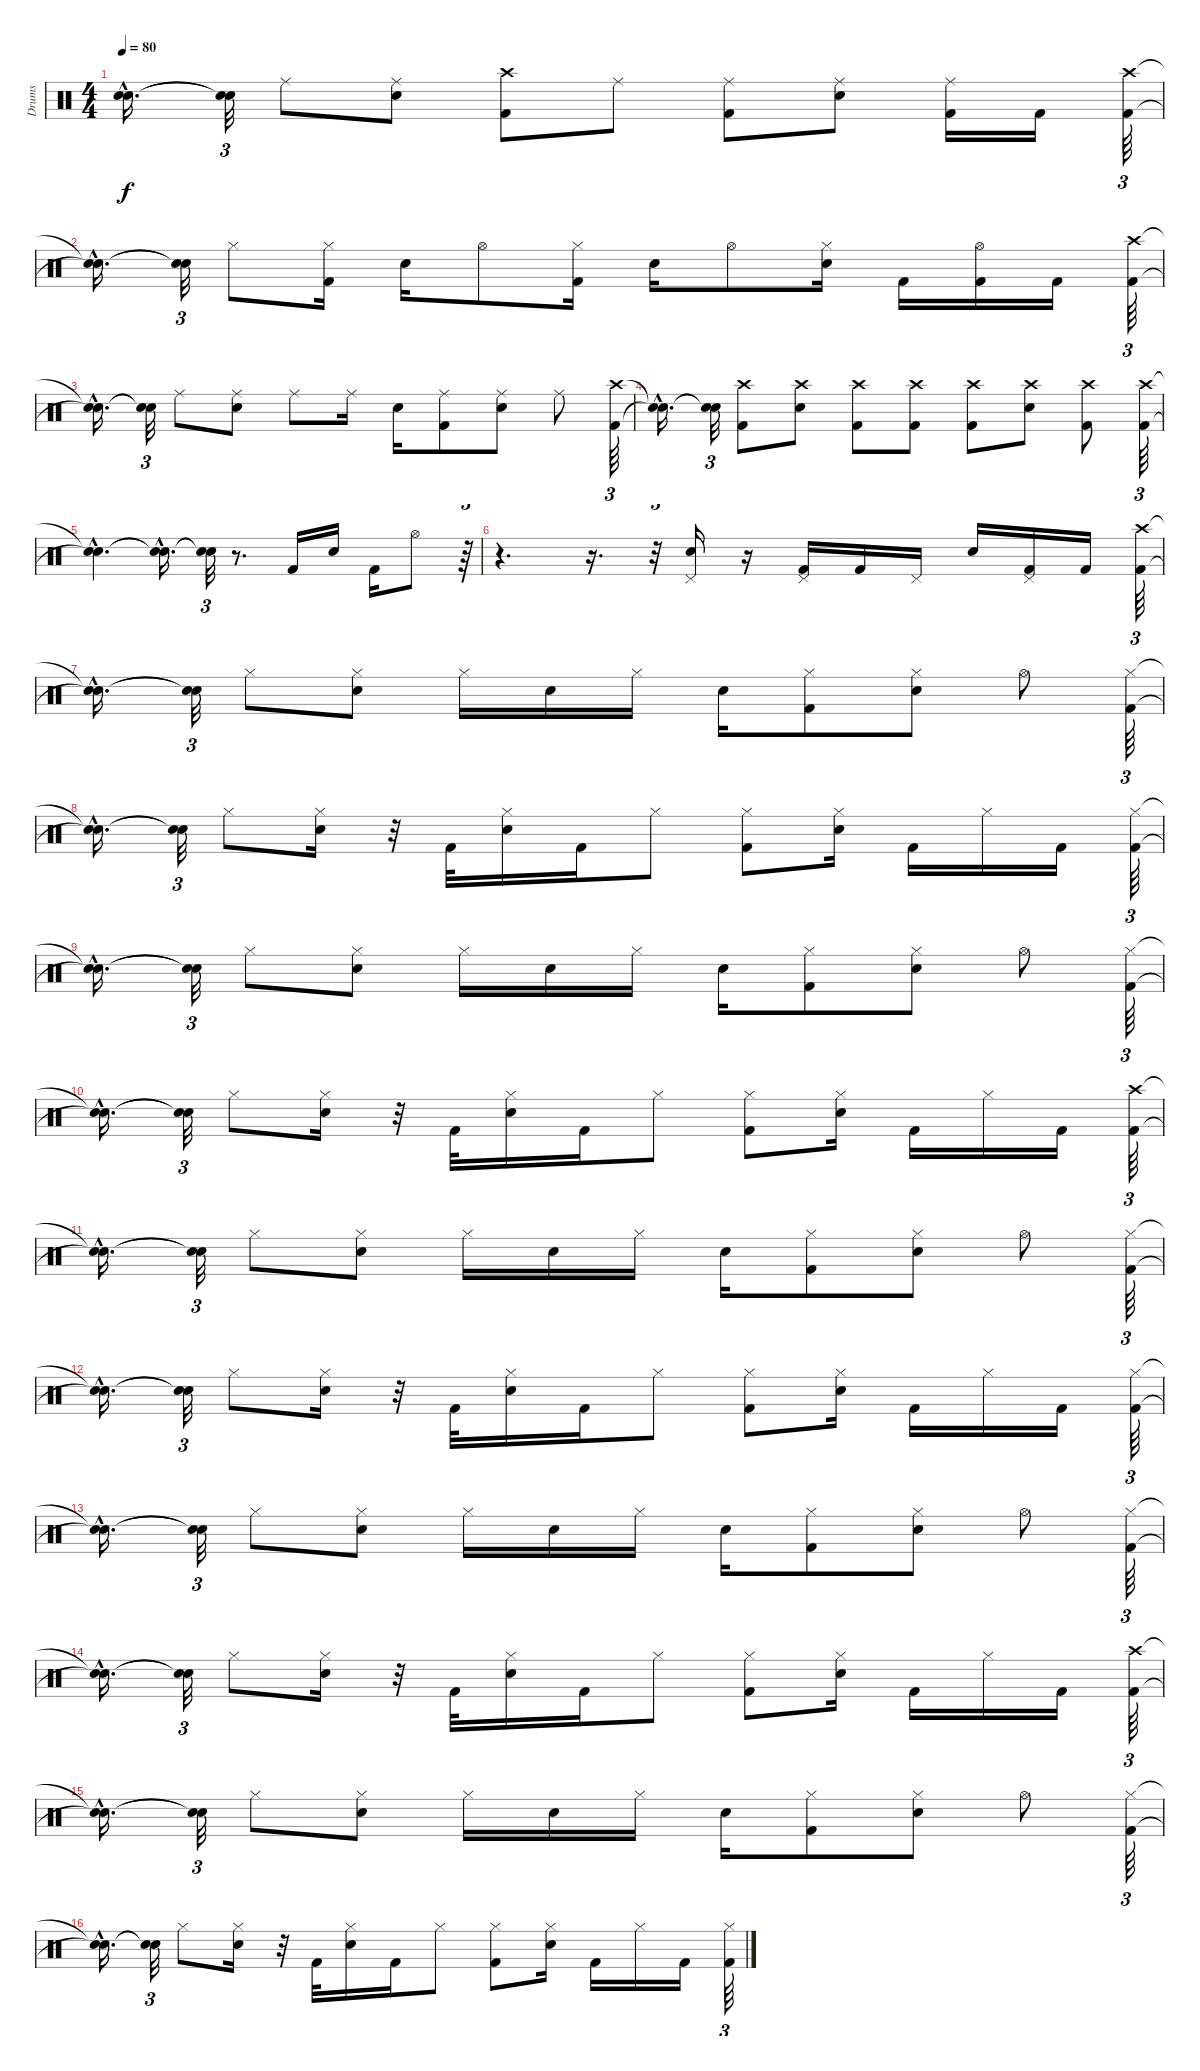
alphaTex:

\track ("Drums" "Drums") {instrument percussion}
\staff {score}
\articulation defaults
\ts (4 4)
\tempo 80
\clef neutral
\ks c
("Snare (hit)"{hac t} "Snare (hit)"{hac t}).16{d dy f} ("Snare (hit)"{t} "Snare (hit)"{t}).32{tu (3 2)} "Ride (middle)".8 ("Ride (middle)" "Electric Snare (hit)").8 ("Crash high (hit)" "Kick (hit) 2").8 "Ride (middle)".8 ("Ride (middle)" "Kick (hit) 2").8 ("Ride (middle)" "Electric Snare (hit)").8 ("Ride (middle)" "Kick (hit) 2").16 "Kick (hit) 2".16 ("Crash high (hit)" "Kick (hit) 2").64{tu (3 2)} |
("Snare (hit)"{hac t} "Snare (hit)"{hac t}).16{d} ("Snare (hit)"{t} "Snare (hit)"{t}).32{tu (3 2)} "Hi-Hat (closed)".8 ("Hi-Hat (closed)" "Kick (hit) 2").16 "Electric Snare (hit)".16 "Hi-Hat (open)".8 ("Hi-Hat (closed)" "Kick (hit) 2").16 "Electric Snare (hit)".16 "Hi-Hat (open)".8 ("Hi-Hat (closed)" "Electric Snare (hit)").16 "Kick (hit) 2".16 ("Hi-Hat (open)" "Kick (hit) 2").16 "Kick (hit) 2".16 ("Crash high (hit)" "Kick (hit) 2").64{tu (3 2)} |
("Snare (hit)"{hac t} "Snare (hit)"{hac t}).16{d} ("Snare (hit)"{t} "Snare (hit)"{t}).32{tu (3 2)} "Ride (middle)".8 ("Ride (middle)" "Electric Snare (hit)").8 "Ride (middle)".8 "Ride (middle)".16 "Electric Snare (hit)".16 ("Ride (middle)" "Kick (hit) 2").8 ("Ride (middle)" "Electric Snare (hit)").8 "Ride (middle)".8 ("Crash high (hit)" "Kick (hit) 2").64{tu (3 2)} |
("Snare (hit)"{hac t} "Snare (hit)"{hac t}).16{d} ("Snare (hit)"{t} "Snare (hit)"{t}).32{tu (3 2)} ("Crash high (hit)" "Kick (hit) 2").8 ("Crash high (hit)" "Electric Snare (hit)").8 ("Crash high (hit)" "Kick (hit) 2").8 ("Crash high (hit)" "Kick (hit) 2").8 ("Crash high (hit)" "Kick (hit) 2").8 ("Crash high (hit)" "Electric Snare (hit)").8 ("Crash high (hit)" "Kick (hit) 2").8 ("Crash high (hit)" "Kick (hit) 2").64{tu (3 2)} |
("Snare (hit)"{hac t} "Snare (hit)"{hac t}).4{d} ("Snare (hit)"{hac t} "Snare (hit)"{hac t}).16{d} ("Snare (hit)"{t} "Snare (hit)"{t}).32{tu (3 2)} r.8{d} "Kick (hit) 2".16 "Electric Snare (hit)".16 "Kick (hit) 2".16 "Hi-Hat (open)".8 r.64{tu (3 2)} |
r.4{d} r.16{d} r.32{tu (3 2)} ("Pedal Hi-Hat (hit)" "Electric Snare (hit)").16 r.16 ("Pedal Hi-Hat (hit)" "Kick (hit) 2").16 "Kick (hit) 2".16 "Pedal Hi-Hat (hit)".16 "Electric Snare (hit)".16 ("Pedal Hi-Hat (hit)" "Kick (hit) 2").16 "Kick (hit) 2".16 ("Crash high (hit)" "Kick (hit) 2").64{tu (3 2)} |
("Snare (hit)"{hac t} "Snare (hit)"{hac t}).16{d} ("Snare (hit)"{t} "Snare (hit)"{t}).32{tu (3 2)} "Hi-Hat (closed)".8 ("Hi-Hat (closed)" "Electric Snare (hit)").8 "Hi-Hat (closed)".16 "Electric Snare (hit)".16 "Hi-Hat (closed)".16 "Electric Snare (hit)".16 ("Hi-Hat (closed)" "Kick (hit) 2").8 ("Hi-Hat (closed)" "Electric Snare (hit)").8 "Hi-Hat (open)".8 ("Hi-Hat (closed)" "Kick (hit) 2").64{tu (3 2)} |
("Snare (hit)"{hac t} "Snare (hit)"{hac t}).16{d} ("Snare (hit)"{t} "Snare (hit)"{t}).32{tu (3 2)} "Hi-Hat (closed)".8 ("Hi-Hat (closed)" "Electric Snare (hit)").16 r.32 "Kick (hit) 2".32 ("Hi-Hat (closed)" "Electric Snare (hit)").16 "Kick (hit) 2".16 "Hi-Hat (closed)".8 ("Hi-Hat (closed)" "Kick (hit) 2").8 ("Hi-Hat (closed)" "Electric Snare (hit)").16 "Kick (hit) 2".16 "Hi-Hat (closed)".16 "Kick (hit) 2".16 ("Hi-Hat (closed)" "Kick (hit) 2").64{tu (3 2)} |
("Snare (hit)"{hac t} "Snare (hit)"{hac t}).16{d} ("Snare (hit)"{t} "Snare (hit)"{t}).32{tu (3 2)} "Hi-Hat (closed)".8 ("Hi-Hat (closed)" "Electric Snare (hit)").8 "Hi-Hat (closed)".16 "Electric Snare (hit)".16 "Hi-Hat (closed)".16 "Electric Snare (hit)".16 ("Hi-Hat (closed)" "Kick (hit) 2").8 ("Hi-Hat (closed)" "Electric Snare (hit)").8 "Hi-Hat (open)".8 ("Hi-Hat (closed)" "Kick (hit) 2").64{tu (3 2)} |
("Snare (hit)"{hac t} "Snare (hit)"{hac t}).16{d} ("Snare (hit)"{t} "Snare (hit)"{t}).32{tu (3 2)} "Hi-Hat (closed)".8 ("Hi-Hat (closed)" "Electric Snare (hit)").16 r.32 "Kick (hit) 2".32 ("Hi-Hat (closed)" "Electric Snare (hit)").16 "Kick (hit) 2".16 "Hi-Hat (closed)".8 ("Hi-Hat (closed)" "Kick (hit) 2").8 ("Hi-Hat (closed)" "Electric Snare (hit)").16 "Kick (hit) 2".16 "Hi-Hat (closed)".16 "Kick (hit) 2".16 ("Crash high (hit)" "Kick (hit) 2").64{tu (3 2)} |
("Snare (hit)"{hac t} "Snare (hit)"{hac t}).16{d} ("Snare (hit)"{t} "Snare (hit)"{t}).32{tu (3 2)} "Hi-Hat (closed)".8 ("Hi-Hat (closed)" "Electric Snare (hit)").8 "Hi-Hat (closed)".16 "Electric Snare (hit)".16 "Hi-Hat (closed)".16 "Electric Snare (hit)".16 ("Hi-Hat (closed)" "Kick (hit) 2").8 ("Hi-Hat (closed)" "Electric Snare (hit)").8 "Hi-Hat (open)".8 ("Hi-Hat (closed)" "Kick (hit) 2").64{tu (3 2)} |
("Snare (hit)"{hac t} "Snare (hit)"{hac t}).16{d} ("Snare (hit)"{t} "Snare (hit)"{t}).32{tu (3 2)} "Hi-Hat (closed)".8 ("Hi-Hat (closed)" "Electric Snare (hit)").16 r.32 "Kick (hit) 2".32 ("Hi-Hat (closed)" "Electric Snare (hit)").16 "Kick (hit) 2".16 "Hi-Hat (closed)".8 ("Hi-Hat (closed)" "Kick (hit) 2").8 ("Hi-Hat (closed)" "Electric Snare (hit)").16 "Kick (hit) 2".16 "Hi-Hat (closed)".16 "Kick (hit) 2".16 ("Hi-Hat (closed)" "Kick (hit) 2").64{tu (3 2)} |
("Snare (hit)"{hac t} "Snare (hit)"{hac t}).16{d} ("Snare (hit)"{t} "Snare (hit)"{t}).32{tu (3 2)} "Hi-Hat (closed)".8 ("Hi-Hat (closed)" "Electric Snare (hit)").8 "Hi-Hat (closed)".16 "Electric Snare (hit)".16 "Hi-Hat (closed)".16 "Electric Snare (hit)".16 ("Hi-Hat (closed)" "Kick (hit) 2").8 ("Hi-Hat (closed)" "Electric Snare (hit)").8 "Hi-Hat (open)".8 ("Hi-Hat (closed)" "Kick (hit) 2").64{tu (3 2)} |
("Snare (hit)"{hac t} "Snare (hit)"{hac t}).16{d} ("Snare (hit)"{t} "Snare (hit)"{t}).32{tu (3 2)} "Hi-Hat (closed)".8 ("Hi-Hat (closed)" "Electric Snare (hit)").16 r.32 "Kick (hit) 2".32 ("Hi-Hat (closed)" "Electric Snare (hit)").16 "Kick (hit) 2".16 "Hi-Hat (closed)".8 ("Hi-Hat (closed)" "Kick (hit) 2").8 ("Hi-Hat (closed)" "Electric Snare (hit)").16 "Kick (hit) 2".16 "Hi-Hat (closed)".16 "Kick (hit) 2".16 ("Crash high (hit)" "Kick (hit) 2").64{tu (3 2)} |
("Snare (hit)"{hac t} "Snare (hit)"{hac t}).16{d} ("Snare (hit)"{t} "Snare (hit)"{t}).32{tu (3 2)} "Hi-Hat (closed)".8 ("Hi-Hat (closed)" "Electric Snare (hit)").8 "Hi-Hat (closed)".16 "Electric Snare (hit)".16 "Hi-Hat (closed)".16 "Electric Snare (hit)".16 ("Hi-Hat (closed)" "Kick (hit) 2").8 ("Hi-Hat (closed)" "Electric Snare (hit)").8 "Hi-Hat (open)".8 ("Hi-Hat (closed)" "Kick (hit) 2").64{tu (3 2)} |
("Snare (hit)"{hac t} "Snare (hit)"{hac t}).16{d} ("Snare (hit)"{t} "Snare (hit)"{t}).32{tu (3 2)} "Hi-Hat (closed)".8 ("Hi-Hat (closed)" "Electric Snare (hit)").16 r.32 "Kick (hit) 2".32 ("Hi-Hat (closed)" "Electric Snare (hit)").16 "Kick (hit) 2".16 "Hi-Hat (closed)".8 ("Hi-Hat (closed)" "Kick (hit) 2").8 ("Hi-Hat (closed)" "Electric Snare (hit)").16 "Kick (hit) 2".16 "Hi-Hat (closed)".16 "Kick (hit) 2".16 ("Hi-Hat (closed)" "Kick (hit) 2").64{tu (3 2)}
